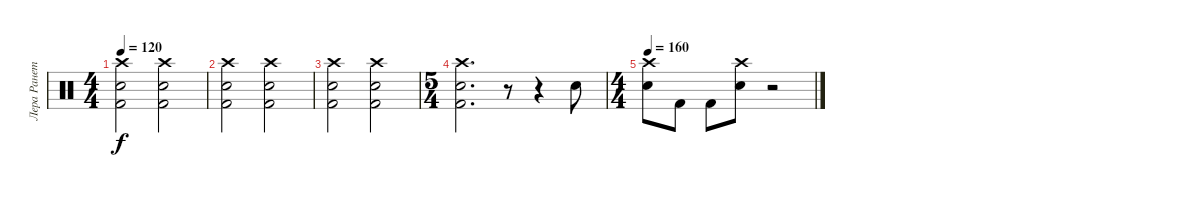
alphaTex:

\track ("Лера Ранетка" "Лера Ранет") {instrument percussion}
\staff {score}
\articulation defaults
\ts (4 4)
\tempo 120
\clef neutral
\ks c
("Crash high (hit)" "Snare (hit) 2" "Kick (hit) 2").2{dy f} ("Crash high (hit)" "Snare (hit) 2" "Kick (hit) 2").2 |
("Crash high (hit)" "Snare (hit) 2" "Kick (hit) 2").2 ("Crash high (hit)" "Snare (hit) 2" "Kick (hit) 2").2 |
("Crash high (hit)" "Snare (hit) 2" "Kick (hit) 2").2 ("Crash high (hit)" "Snare (hit) 2" "Kick (hit) 2").2 |
\ts (5 4)
("Crash high (hit)" "Snare (hit) 2" "Kick (hit) 2").2{d} r.8 r.4 "Snare (hit) 2".8 |
\ts (4 4)
\tempo 160
("Crash high (hit)" "Snare (hit) 2").8 "Kick (hit) 2".8 "Kick (hit) 2".8 ("Crash high (hit)" "Snare (hit) 2").8 r.2
